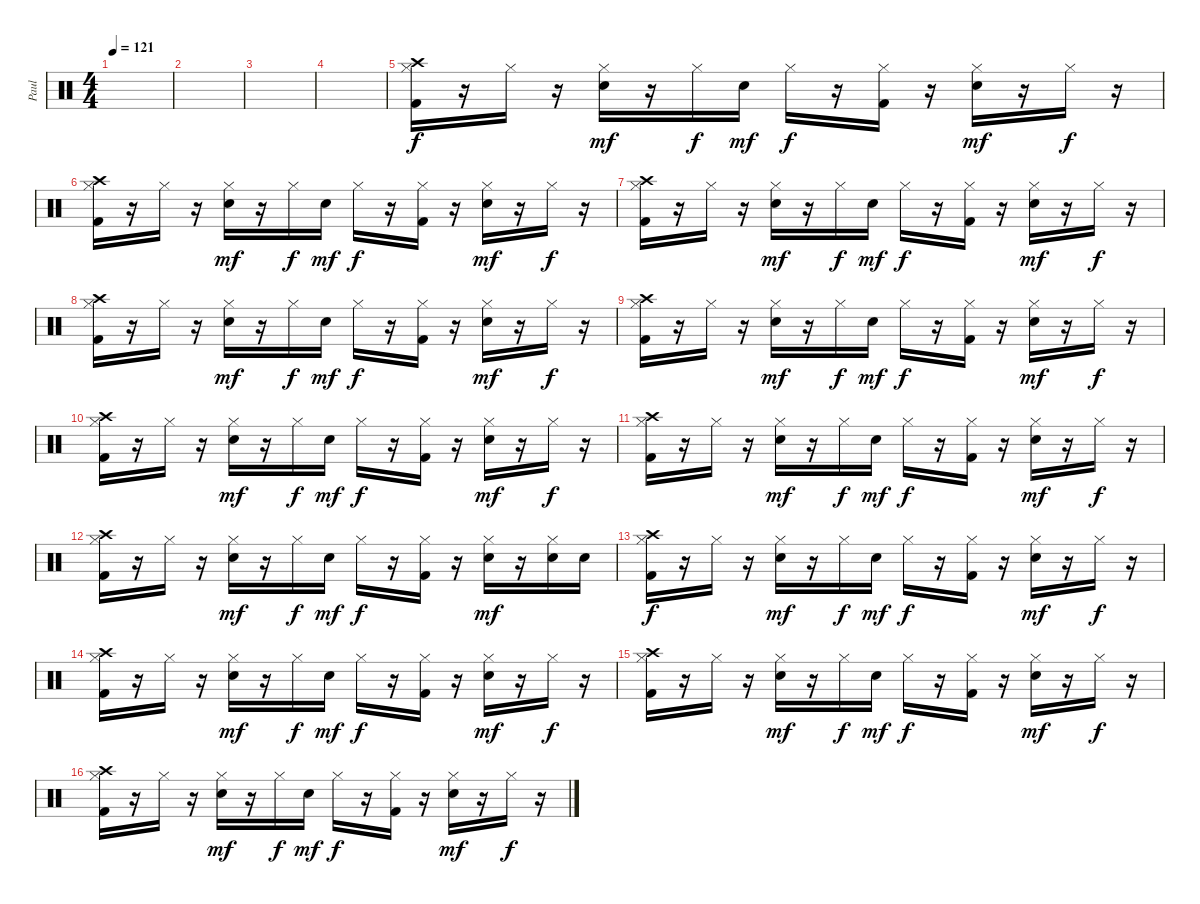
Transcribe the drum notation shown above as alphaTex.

\track ("Paul" "Paul") {instrument percussion}
\staff {score}
\articulation defaults
\ts (4 4)
\tempo 121
\clef neutral
\ks c
|
|
|
|
("Hi-Hat (closed)" "Crash high (hit)" "Kick (hit) 2").16{dy f} r.16 "Hi-Hat (closed)".16 r.16 ("Hi-Hat (closed)" "Snare (hit) 2").16{dy mf} r.16 "Hi-Hat (closed)".16{dy f} "Snare (hit) 2".16{dy mf} "Hi-Hat (closed)".16{dy f} r.16 ("Hi-Hat (closed)" "Kick (hit) 2").16 r.16 ("Hi-Hat (closed)" "Snare (hit) 2").16{dy mf} r.16 "Hi-Hat (closed)".16{dy f} r.16 |
("Hi-Hat (closed)" "Crash high (hit)" "Kick (hit) 2").16 r.16 "Hi-Hat (closed)".16 r.16 ("Hi-Hat (closed)" "Snare (hit) 2").16{dy mf} r.16 "Hi-Hat (closed)".16{dy f} "Snare (hit) 2".16{dy mf} "Hi-Hat (closed)".16{dy f} r.16 ("Hi-Hat (closed)" "Kick (hit) 2").16 r.16 ("Hi-Hat (closed)" "Snare (hit) 2").16{dy mf} r.16 "Hi-Hat (closed)".16{dy f} r.16 |
("Hi-Hat (closed)" "Crash high (hit)" "Kick (hit) 2").16 r.16 "Hi-Hat (closed)".16 r.16 ("Hi-Hat (closed)" "Snare (hit) 2").16{dy mf} r.16 "Hi-Hat (closed)".16{dy f} "Snare (hit) 2".16{dy mf} "Hi-Hat (closed)".16{dy f} r.16 ("Hi-Hat (closed)" "Kick (hit) 2").16 r.16 ("Hi-Hat (closed)" "Snare (hit) 2").16{dy mf} r.16 "Hi-Hat (closed)".16{dy f} r.16 |
("Hi-Hat (closed)" "Crash high (hit)" "Kick (hit) 2").16 r.16 "Hi-Hat (closed)".16 r.16 ("Hi-Hat (closed)" "Snare (hit) 2").16{dy mf} r.16 "Hi-Hat (closed)".16{dy f} "Snare (hit) 2".16{dy mf} "Hi-Hat (closed)".16{dy f} r.16 ("Hi-Hat (closed)" "Kick (hit) 2").16 r.16 ("Hi-Hat (closed)" "Snare (hit) 2").16{dy mf} r.16 "Hi-Hat (closed)".16{dy f} r.16 |
("Hi-Hat (closed)" "Crash high (hit)" "Kick (hit) 2").16 r.16 "Hi-Hat (closed)".16 r.16 ("Hi-Hat (closed)" "Snare (hit) 2").16{dy mf} r.16 "Hi-Hat (closed)".16{dy f} "Snare (hit) 2".16{dy mf} "Hi-Hat (closed)".16{dy f} r.16 ("Hi-Hat (closed)" "Kick (hit) 2").16 r.16 ("Hi-Hat (closed)" "Snare (hit) 2").16{dy mf} r.16 "Hi-Hat (closed)".16{dy f} r.16 |
("Hi-Hat (closed)" "Crash high (hit)" "Kick (hit) 2").16 r.16 "Hi-Hat (closed)".16 r.16 ("Hi-Hat (closed)" "Snare (hit) 2").16{dy mf} r.16 "Hi-Hat (closed)".16{dy f} "Snare (hit) 2".16{dy mf} "Hi-Hat (closed)".16{dy f} r.16 ("Hi-Hat (closed)" "Kick (hit) 2").16 r.16 ("Hi-Hat (closed)" "Snare (hit) 2").16{dy mf} r.16 "Hi-Hat (closed)".16{dy f} r.16 |
("Hi-Hat (closed)" "Crash high (hit)" "Kick (hit) 2").16 r.16 "Hi-Hat (closed)".16 r.16 ("Hi-Hat (closed)" "Snare (hit) 2").16{dy mf} r.16 "Hi-Hat (closed)".16{dy f} "Snare (hit) 2".16{dy mf} "Hi-Hat (closed)".16{dy f} r.16 ("Hi-Hat (closed)" "Kick (hit) 2").16 r.16 ("Hi-Hat (closed)" "Snare (hit) 2").16{dy mf} r.16 "Hi-Hat (closed)".16{dy f} r.16 |
("Hi-Hat (closed)" "Crash high (hit)" "Kick (hit) 2").16 r.16 "Hi-Hat (closed)".16 r.16 ("Hi-Hat (closed)" "Snare (hit) 2").16{dy mf} r.16 "Hi-Hat (closed)".16{dy f} "Snare (hit) 2".16{dy mf} "Hi-Hat (closed)".16{dy f} r.16 ("Hi-Hat (closed)" "Kick (hit) 2").16 r.16 ("Hi-Hat (closed)" "Snare (hit) 2").16{dy mf} r.16 ("Hi-Hat (closed)" "Snare (hit) 2").16 "Snare (hit) 2".16 |
("Hi-Hat (closed)" "Crash high (hit)" "Kick (hit) 2").16{dy f} r.16 "Hi-Hat (closed)".16 r.16 ("Hi-Hat (closed)" "Snare (hit) 2").16{dy mf} r.16 "Hi-Hat (closed)".16{dy f} "Snare (hit) 2".16{dy mf} "Hi-Hat (closed)".16{dy f} r.16 ("Hi-Hat (closed)" "Kick (hit) 2").16 r.16 ("Hi-Hat (closed)" "Snare (hit) 2").16{dy mf} r.16 "Hi-Hat (closed)".16{dy f} r.16 |
("Hi-Hat (closed)" "Crash high (hit)" "Kick (hit) 2").16 r.16 "Hi-Hat (closed)".16 r.16 ("Hi-Hat (closed)" "Snare (hit) 2").16{dy mf} r.16 "Hi-Hat (closed)".16{dy f} "Snare (hit) 2".16{dy mf} "Hi-Hat (closed)".16{dy f} r.16 ("Hi-Hat (closed)" "Kick (hit) 2").16 r.16 ("Hi-Hat (closed)" "Snare (hit) 2").16{dy mf} r.16 "Hi-Hat (closed)".16{dy f} r.16 |
("Hi-Hat (closed)" "Crash high (hit)" "Kick (hit) 2").16 r.16 "Hi-Hat (closed)".16 r.16 ("Hi-Hat (closed)" "Snare (hit) 2").16{dy mf} r.16 "Hi-Hat (closed)".16{dy f} "Snare (hit) 2".16{dy mf} "Hi-Hat (closed)".16{dy f} r.16 ("Hi-Hat (closed)" "Kick (hit) 2").16 r.16 ("Hi-Hat (closed)" "Snare (hit) 2").16{dy mf} r.16 "Hi-Hat (closed)".16{dy f} r.16 |
("Hi-Hat (closed)" "Crash high (hit)" "Kick (hit) 2").16 r.16 "Hi-Hat (closed)".16 r.16 ("Hi-Hat (closed)" "Snare (hit) 2").16{dy mf} r.16 "Hi-Hat (closed)".16{dy f} "Snare (hit) 2".16{dy mf} "Hi-Hat (closed)".16{dy f} r.16 ("Hi-Hat (closed)" "Kick (hit) 2").16 r.16 ("Hi-Hat (closed)" "Snare (hit) 2").16{dy mf} r.16 "Hi-Hat (closed)".16{dy f} r.16
